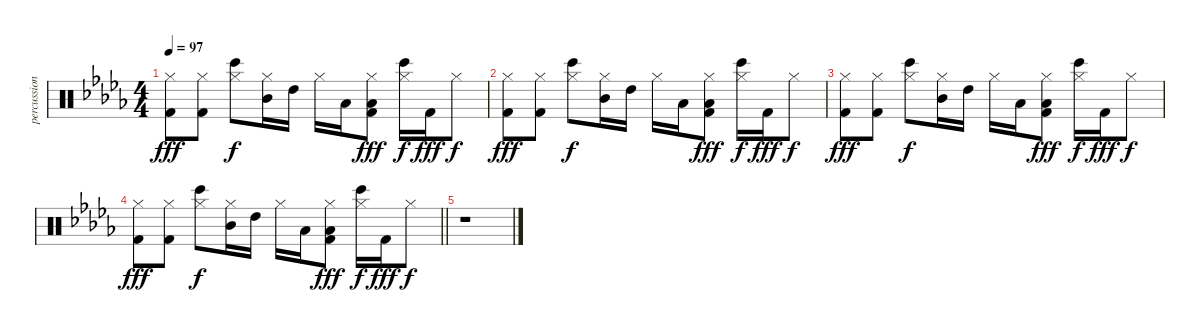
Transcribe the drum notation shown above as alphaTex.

\track ("percussion" "percussion") {instrument percussion}
\staff {score}
\articulation defaults
\ts (4 4)
\tempo 97
\clef neutral
\ks bbminor
("Hi-Hat (closed)" "Kick (hit) 2").8{dy fff} ("Hi-Hat (closed)" "Kick (hit) 2").8 ("Bongo High (hit)" "Hi-Hat (closed)").8{dy f} ("Mid Tom (hit)" "Hi-Hat (closed)").16 "High Tom (hit)".16 "Hi-Hat (closed)".16 "Low Tom (hit)".16 ("Low Tom (hit)" "Hi-Hat (closed)" "Kick (hit) 2").8{dy fff} ("Bongo High (hit)" "Hi-Hat (closed)").16{dy f} "Kick (hit) 2".16{dy fff} "Hi-Hat (closed)".8{dy f} |
("Hi-Hat (closed)" "Kick (hit) 2").8{dy fff} ("Hi-Hat (closed)" "Kick (hit) 2").8 ("Bongo High (hit)" "Hi-Hat (closed)").8{dy f} ("Mid Tom (hit)" "Hi-Hat (closed)").16 "High Tom (hit)".16 "Hi-Hat (closed)".16 "Low Tom (hit)".16 ("Low Tom (hit)" "Hi-Hat (closed)" "Kick (hit) 2").8{dy fff} ("Bongo High (hit)" "Hi-Hat (closed)").16{dy f} "Kick (hit) 2".16{dy fff} "Hi-Hat (closed)".8{dy f} |
("Hi-Hat (closed)" "Kick (hit) 2").8{dy fff} ("Hi-Hat (closed)" "Kick (hit) 2").8 ("Bongo High (hit)" "Hi-Hat (closed)").8{dy f} ("Mid Tom (hit)" "Hi-Hat (closed)").16 "High Tom (hit)".16 "Hi-Hat (closed)".16 "Low Tom (hit)".16 ("Low Tom (hit)" "Hi-Hat (closed)" "Kick (hit) 2").8{dy fff} ("Bongo High (hit)" "Hi-Hat (closed)").16{dy f} "Kick (hit) 2".16{dy fff} "Hi-Hat (closed)".8{dy f} |
\barLineRight lightlight
("Hi-Hat (closed)" "Kick (hit) 2").8{dy fff} ("Hi-Hat (closed)" "Kick (hit) 2").8 ("Bongo High (hit)" "Hi-Hat (closed)").8{dy f} ("Mid Tom (hit)" "Hi-Hat (closed)").16 "High Tom (hit)".16 "Hi-Hat (closed)".16 "Low Tom (hit)".16 ("Low Tom (hit)" "Hi-Hat (closed)" "Kick (hit) 2").8{dy fff} ("Bongo High (hit)" "Hi-Hat (closed)").16{dy f} "Kick (hit) 2".16{dy fff} "Hi-Hat (closed)".8{dy f} |
r.1
